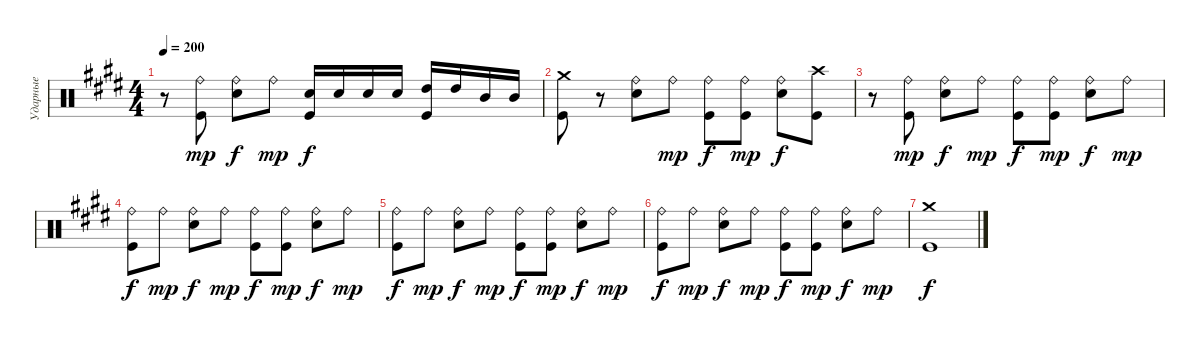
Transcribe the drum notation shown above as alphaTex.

\track ("Ударные" "Ударные") {instrument percussion}
\staff {score}
\articulation defaults
\ts (4 4)
\tempo 200
\clef neutral
\ks c#minor
r.8{dy f} ("Ride (bell)" "Kick (hit)").8{dy mp} ("Ride (bell)" "Electric Snare (hit)").8{dy f} "Ride (bell)".8{dy mp} ("Electric Snare (hit)" "Kick (hit)").16{dy f} "Electric Snare (hit)".16 "Electric Snare (hit)".16 "Electric Snare (hit)".16 ("High Tom (hit)" "Kick (hit)").16 "High Tom (hit)".16 "Mid Tom (hit)".16 "Mid Tom (hit)".16 |
("Crash medium (hit)" "Kick (hit)").8 r.8 ("Ride (bell)" "Electric Snare (hit)").8 "Ride (bell)".8{dy mp} ("Ride (bell)" "Kick (hit)").8{dy f} ("Ride (bell)" "Kick (hit)").8{dy mp} ("Ride (bell)" "Electric Snare (hit)").8{dy f} ("Crash high (hit)" "Kick (hit)").8 |
r.8 ("Ride (bell)" "Kick (hit)").8{dy mp} ("Ride (bell)" "Electric Snare (hit)").8{dy f} "Ride (bell)".8{dy mp} ("Ride (bell)" "Kick (hit)").8{dy f} ("Ride (bell)" "Kick (hit)").8{dy mp} ("Ride (bell)" "Electric Snare (hit)").8{dy f} "Ride (bell)".8{dy mp} |
("Ride (bell)" "Kick (hit)").8{dy f} "Ride (bell)".8{dy mp} ("Ride (bell)" "Electric Snare (hit)").8{dy f} "Ride (bell)".8{dy mp} ("Ride (bell)" "Kick (hit)").8{dy f} ("Ride (bell)" "Kick (hit)").8{dy mp} ("Ride (bell)" "Electric Snare (hit)").8{dy f} "Ride (bell)".8{dy mp} |
("Ride (bell)" "Kick (hit)").8{dy f} "Ride (bell)".8{dy mp} ("Ride (bell)" "Electric Snare (hit)").8{dy f} "Ride (bell)".8{dy mp} ("Ride (bell)" "Kick (hit)").8{dy f} ("Ride (bell)" "Kick (hit)").8{dy mp} ("Ride (bell)" "Electric Snare (hit)").8{dy f} "Ride (bell)".8{dy mp} |
("Ride (bell)" "Kick (hit)").8{dy f} "Ride (bell)".8{dy mp} ("Ride (bell)" "Electric Snare (hit)").8{dy f} "Ride (bell)".8{dy mp} ("Ride (bell)" "Kick (hit)").8{dy f} ("Ride (bell)" "Kick (hit)").8{dy mp} ("Ride (bell)" "Electric Snare (hit)").8{dy f} "Ride (bell)".8{dy mp} |
("Crash medium (hit)" "Kick (hit)").1{dy f}
